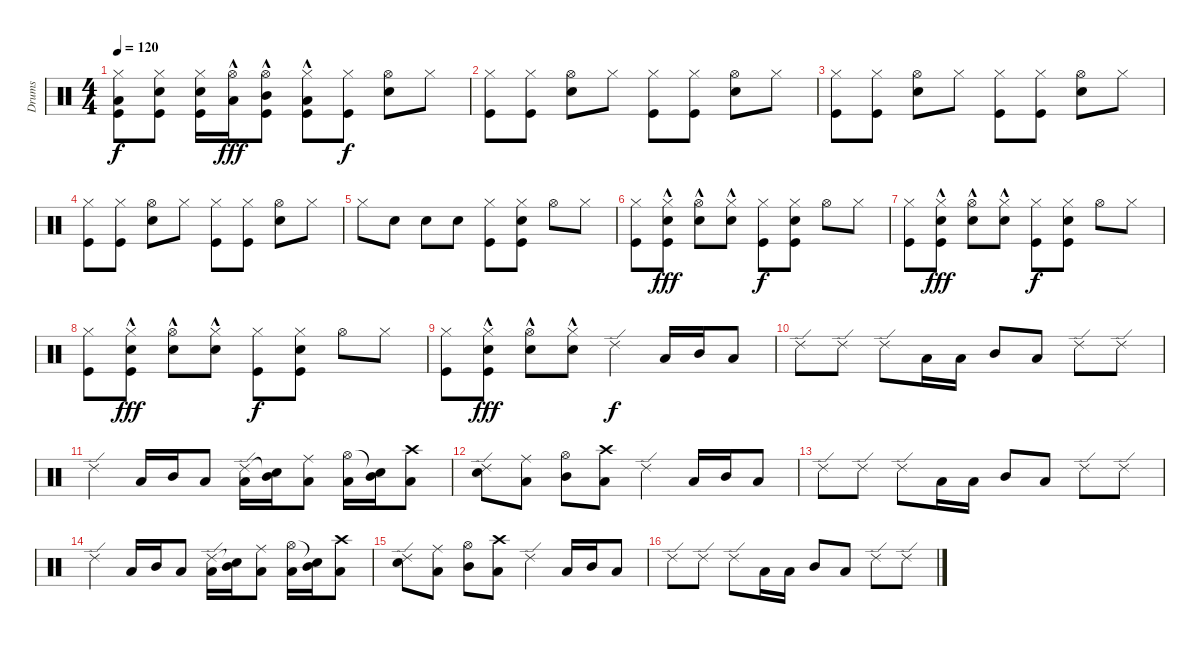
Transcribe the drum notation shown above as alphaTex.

\track ("Drums" "Drums") {instrument percussion}
\staff {score}
\articulation defaults
\ts (4 4)
\tempo 120
\clef neutral
\ks c
("Hi-Hat (closed)" "Low Floor Tom (hit)" "Kick (hit)").8{dy f} ("Hi-Hat (closed)" "Electric Snare (hit)" "Kick (hit)").8 ("Hi-Hat (closed)" "Electric Snare (hit)" "Kick (hit)").16 ("Hi-Hat (open)" "Low Tom (hit)"{hac}).16{dy fff} ("Hi-Hat (open)" "Mid Tom (hit)"{hac} "Kick (hit)").8 ("Hi-Hat (closed)" "Low Floor Tom (hit)"{hac} "Kick (hit)").8 ("Hi-Hat (closed)" "Kick (hit)").8{dy f} ("Hi-Hat (open)" "Electric Snare (hit)").8 "Hi-Hat (closed)".8 |
("Hi-Hat (closed)" "Kick (hit)").8 ("Hi-Hat (closed)" "Kick (hit)").8 ("Hi-Hat (open)" "Electric Snare (hit)").8 "Hi-Hat (closed)".8 ("Hi-Hat (closed)" "Kick (hit)").8 ("Hi-Hat (closed)" "Kick (hit)").8 ("Hi-Hat (open)" "Electric Snare (hit)").8 "Hi-Hat (closed)".8 |
("Hi-Hat (closed)" "Kick (hit)").8 ("Hi-Hat (closed)" "Kick (hit)").8 ("Hi-Hat (open)" "Electric Snare (hit)").8 "Hi-Hat (closed)".8 ("Hi-Hat (closed)" "Kick (hit)").8 ("Hi-Hat (closed)" "Kick (hit)").8 ("Hi-Hat (open)" "Electric Snare (hit)").8 "Hi-Hat (closed)".8 |
("Hi-Hat (closed)" "Kick (hit)").8 ("Hi-Hat (closed)" "Kick (hit)").8 ("Hi-Hat (open)" "Electric Snare (hit)").8 "Hi-Hat (closed)".8 ("Hi-Hat (closed)" "Kick (hit)").8 ("Hi-Hat (closed)" "Kick (hit)").8 ("Hi-Hat (open)" "Electric Snare (hit)").8 "Hi-Hat (closed)".8 |
"Hi-Hat (closed)".8 "Electric Snare (hit)".8 "Electric Snare (hit)".8 "Electric Snare (hit)".8 ("Hi-Hat (closed)" "Kick (hit)").8 ("Hi-Hat (closed)" "Electric Snare (hit)" "Kick (hit)").8 "Hi-Hat (open)".8 "Hi-Hat (closed)".8 |
("Hi-Hat (closed)" "Kick (hit)").8 ("Hi-Hat (closed)" "Electric Snare (hit)"{hac} "Kick (hit)").8{dy fff} ("Hi-Hat (open)" "Electric Snare (hit)"{hac}).8 ("Hi-Hat (closed)" "Electric Snare (hit)"{hac}).8 ("Hi-Hat (closed)" "Kick (hit)").8{dy f} ("Hi-Hat (closed)" "Electric Snare (hit)" "Kick (hit)").8 "Hi-Hat (open)".8 "Hi-Hat (closed)".8 |
("Hi-Hat (closed)" "Kick (hit)").8 ("Hi-Hat (closed)" "Electric Snare (hit)"{hac} "Kick (hit)").8{dy fff} ("Hi-Hat (open)" "Electric Snare (hit)"{hac}).8 ("Hi-Hat (closed)" "Electric Snare (hit)"{hac}).8 ("Hi-Hat (closed)" "Kick (hit)").8{dy f} ("Hi-Hat (closed)" "Electric Snare (hit)" "Kick (hit)").8 "Hi-Hat (open)".8 "Hi-Hat (closed)".8 |
("Hi-Hat (closed)" "Kick (hit)").8 ("Hi-Hat (closed)" "Electric Snare (hit)"{hac} "Kick (hit)").8{dy fff} ("Hi-Hat (open)" "Electric Snare (hit)"{hac}).8 ("Hi-Hat (closed)" "Electric Snare (hit)"{hac}).8 ("Hi-Hat (closed)" "Kick (hit)").8{dy f} ("Hi-Hat (closed)" "Electric Snare (hit)" "Kick (hit)").8 "Hi-Hat (open)".8 "Hi-Hat (closed)".8 |
("Hi-Hat (closed)" "Kick (hit)").8 ("Hi-Hat (closed)" "Electric Snare (hit)"{hac} "Kick (hit)").8{dy fff} ("Hi-Hat (open)" "Electric Snare (hit)"{hac}).8 ("Hi-Hat (closed)" "Electric Snare (hit)"{hac}).8 "Ride (edge) 2".4{dy f} "Low Tom (hit)".16 "Mid Tom (hit)".16 "Low Floor Tom (hit)".8 |
"Ride (edge) 2".8 "Ride (edge) 2".8 "Ride (edge) 2".8 "Low Tom (hit)".16 "Low Tom (hit)".16 "Mid Tom (hit)".8 "Low Floor Tom (hit)".8 "Ride (edge) 2".8 "Ride (edge) 2".8 |
"Ride (edge) 2".4 "Low Tom (hit)".16 "Mid Tom (hit)".16 "Low Floor Tom (hit)".8 ("Ride (edge) 2" "Low Tom (hit)").16 ("Snare (hit)"{t} "Mid Tom (hit)").16 ("Ride (middle)" "Low Floor Tom (hit)").8 ("Hi-Hat (open)" "Low Tom (hit)").16 ("Snare (hit)"{t} "Mid Tom (hit)").16 ("Crash high (hit)" "Low Floor Tom (hit)").8 |
("Ride (edge) 2" "Electric Snare (hit)").8 ("Ride (middle)" "Low Tom (hit)").8 ("Hi-Hat (open)" "Mid Tom (hit)").8 ("Crash high (hit)" "Low Floor Tom (hit)").8 "Ride (edge) 2".4 "Low Tom (hit)".16 "Mid Tom (hit)".16 "Low Floor Tom (hit)".8 |
"Ride (edge) 2".8 "Ride (edge) 2".8 "Ride (edge) 2".8 "Low Tom (hit)".16 "Low Tom (hit)".16 "Mid Tom (hit)".8 "Low Floor Tom (hit)".8 "Ride (edge) 2".8 "Ride (edge) 2".8 |
"Ride (edge) 2".4 "Low Tom (hit)".16 "Mid Tom (hit)".16 "Low Floor Tom (hit)".8 ("Ride (edge) 2" "Low Tom (hit)").16 ("Snare (hit)"{t} "Mid Tom (hit)").16 ("Ride (middle)" "Low Floor Tom (hit)").8 ("Hi-Hat (open)" "Low Tom (hit)").16 ("Snare (hit)"{t} "Mid Tom (hit)").16 ("Crash high (hit)" "Low Floor Tom (hit)").8 |
("Ride (edge) 2" "Electric Snare (hit)").8 ("Ride (middle)" "Low Tom (hit)").8 ("Hi-Hat (open)" "Mid Tom (hit)").8 ("Crash high (hit)" "Low Floor Tom (hit)").8 "Ride (edge) 2".4 "Low Tom (hit)".16 "Mid Tom (hit)".16 "Low Floor Tom (hit)".8 |
"Ride (edge) 2".8 "Ride (edge) 2".8 "Ride (edge) 2".8 "Low Tom (hit)".16 "Low Tom (hit)".16 "Mid Tom (hit)".8 "Low Floor Tom (hit)".8 "Ride (edge) 2".8 "Ride (edge) 2".8
